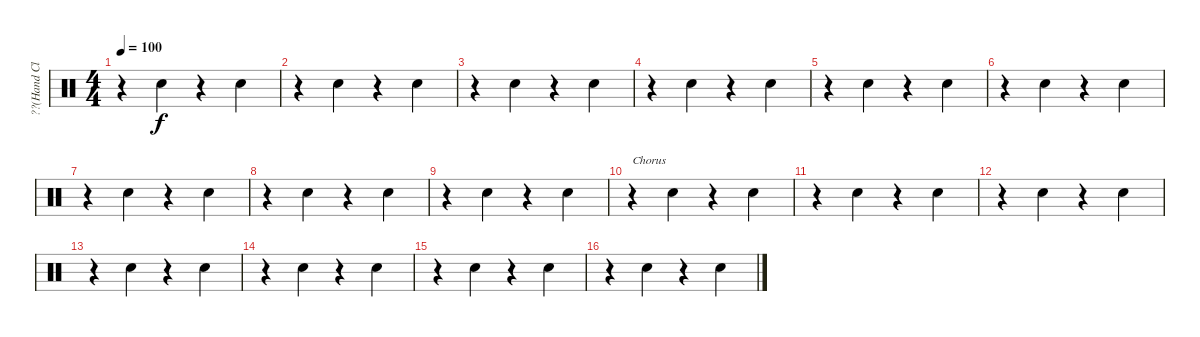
\track ("??(Hand Clap)" "??(Hand Cl") {instrument percussion}
\staff {score}
\articulation defaults
\ts (4 4)
\tempo 100
\clef neutral
\ks c
r.4{dy f} "Hand Clap (hit)".4 r.4 "Hand Clap (hit)".4 |
r.4 "Hand Clap (hit)".4 r.4 "Hand Clap (hit)".4 |
r.4 "Hand Clap (hit)".4 r.4 "Hand Clap (hit)".4 |
r.4 "Hand Clap (hit)".4 r.4 "Hand Clap (hit)".4 |
r.4 "Hand Clap (hit)".4 r.4 "Hand Clap (hit)".4 |
r.4 "Hand Clap (hit)".4 r.4 "Hand Clap (hit)".4 |
r.4 "Hand Clap (hit)".4 r.4 "Hand Clap (hit)".4 |
r.4 "Hand Clap (hit)".4 r.4 "Hand Clap (hit)".4 |
r.4 "Hand Clap (hit)".4 r.4 "Hand Clap (hit)".4 |
r.4{txt "Chorus"} "Hand Clap (hit)".4 r.4 "Hand Clap (hit)".4 |
r.4 "Hand Clap (hit)".4 r.4 "Hand Clap (hit)".4 |
r.4 "Hand Clap (hit)".4 r.4 "Hand Clap (hit)".4 |
r.4 "Hand Clap (hit)".4 r.4 "Hand Clap (hit)".4 |
r.4 "Hand Clap (hit)".4 r.4 "Hand Clap (hit)".4 |
r.4 "Hand Clap (hit)".4 r.4 "Hand Clap (hit)".4 |
r.4 "Hand Clap (hit)".4 r.4 "Hand Clap (hit)".4
